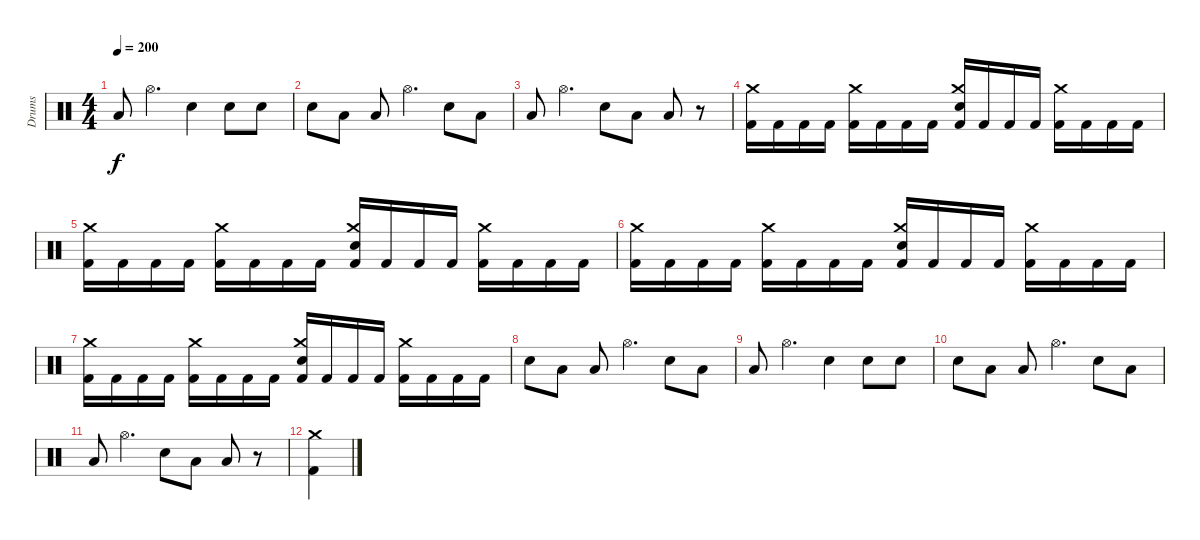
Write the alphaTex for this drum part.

\track ("Drums" "Drums") {instrument percussion}
\staff {score}
\articulation defaults
\ts (4 4)
\tempo 200
\clef neutral
\ks c "Low Tom (hit)".8{dy f} "Hi-Hat (open)".4{d} "Snare (hit) 2".4 "Snare (hit) 2".8 "Snare (hit) 2".8
|
"Snare (hit) 2".8 "Low Tom (hit)".8 "Low Tom (hit)".8 "Hi-Hat (open)".4{d} "Snare (hit) 2".8 "Low Tom (hit)".8 |
"Low Tom (hit)".8 "Hi-Hat (open)".4{d} "Snare (hit) 2".8 "Low Tom (hit)".8 "Low Tom (hit)".8 r.8 |
("Crash medium (hit)" "Kick (hit) 2").16 "Kick (hit) 2".16 "Kick (hit) 2".16 "Kick (hit) 2".16 ("Crash medium (hit)" "Kick (hit) 2").16 "Kick (hit) 2".16 "Kick (hit) 2".16 "Kick (hit) 2".16 ("Crash medium (hit)" "Snare (hit) 2" "Kick (hit) 2").16 "Kick (hit) 2".16 "Kick (hit) 2".16 "Kick (hit) 2".16 ("Crash medium (hit)" "Kick (hit) 2").16 "Kick (hit) 2".16 "Kick (hit) 2".16 "Kick (hit) 2".16 |
("Crash medium (hit)" "Kick (hit) 2").16 "Kick (hit) 2".16 "Kick (hit) 2".16 "Kick (hit) 2".16 ("Crash medium (hit)" "Kick (hit) 2").16 "Kick (hit) 2".16 "Kick (hit) 2".16 "Kick (hit) 2".16 ("Crash medium (hit)" "Snare (hit) 2" "Kick (hit) 2").16 "Kick (hit) 2".16 "Kick (hit) 2".16 "Kick (hit) 2".16 ("Crash medium (hit)" "Kick (hit) 2").16 "Kick (hit) 2".16 "Kick (hit) 2".16 "Kick (hit) 2".16 |
("Crash medium (hit)" "Kick (hit) 2").16 "Kick (hit) 2".16 "Kick (hit) 2".16 "Kick (hit) 2".16 ("Crash medium (hit)" "Kick (hit) 2").16 "Kick (hit) 2".16 "Kick (hit) 2".16 "Kick (hit) 2".16 ("Crash medium (hit)" "Snare (hit) 2" "Kick (hit) 2").16 "Kick (hit) 2".16 "Kick (hit) 2".16 "Kick (hit) 2".16 ("Crash medium (hit)" "Kick (hit) 2").16 "Kick (hit) 2".16 "Kick (hit) 2".16 "Kick (hit) 2".16 |
("Crash medium (hit)" "Kick (hit) 2").16 "Kick (hit) 2".16 "Kick (hit) 2".16 "Kick (hit) 2".16 ("Crash medium (hit)" "Kick (hit) 2").16 "Kick (hit) 2".16 "Kick (hit) 2".16 "Kick (hit) 2".16 ("Crash medium (hit)" "Snare (hit) 2" "Kick (hit) 2").16 "Kick (hit) 2".16 "Kick (hit) 2".16 "Kick (hit) 2".16 ("Crash medium (hit)" "Kick (hit) 2").16 "Kick (hit) 2".16 "Kick (hit) 2".16 "Kick (hit) 2".16 |
"Snare (hit) 2".8 "Low Tom (hit)".8 "Low Tom (hit)".8 "Hi-Hat (open)".4{d} "Snare (hit) 2".8 "Low Tom (hit)".8 |
"Low Tom (hit)".8 "Hi-Hat (open)".4{d} "Snare (hit) 2".4 "Snare (hit) 2".8 "Snare (hit) 2".8 |
"Snare (hit) 2".8 "Low Tom (hit)".8 "Low Tom (hit)".8 "Hi-Hat (open)".4{d} "Snare (hit) 2".8 "Low Tom (hit)".8 |
"Low Tom (hit)".8 "Hi-Hat (open)".4{d} "Snare (hit) 2".8 "Low Tom (hit)".8 "Low Tom (hit)".8 r.8 |
("Crash medium (hit)" "Kick (hit) 2").4
